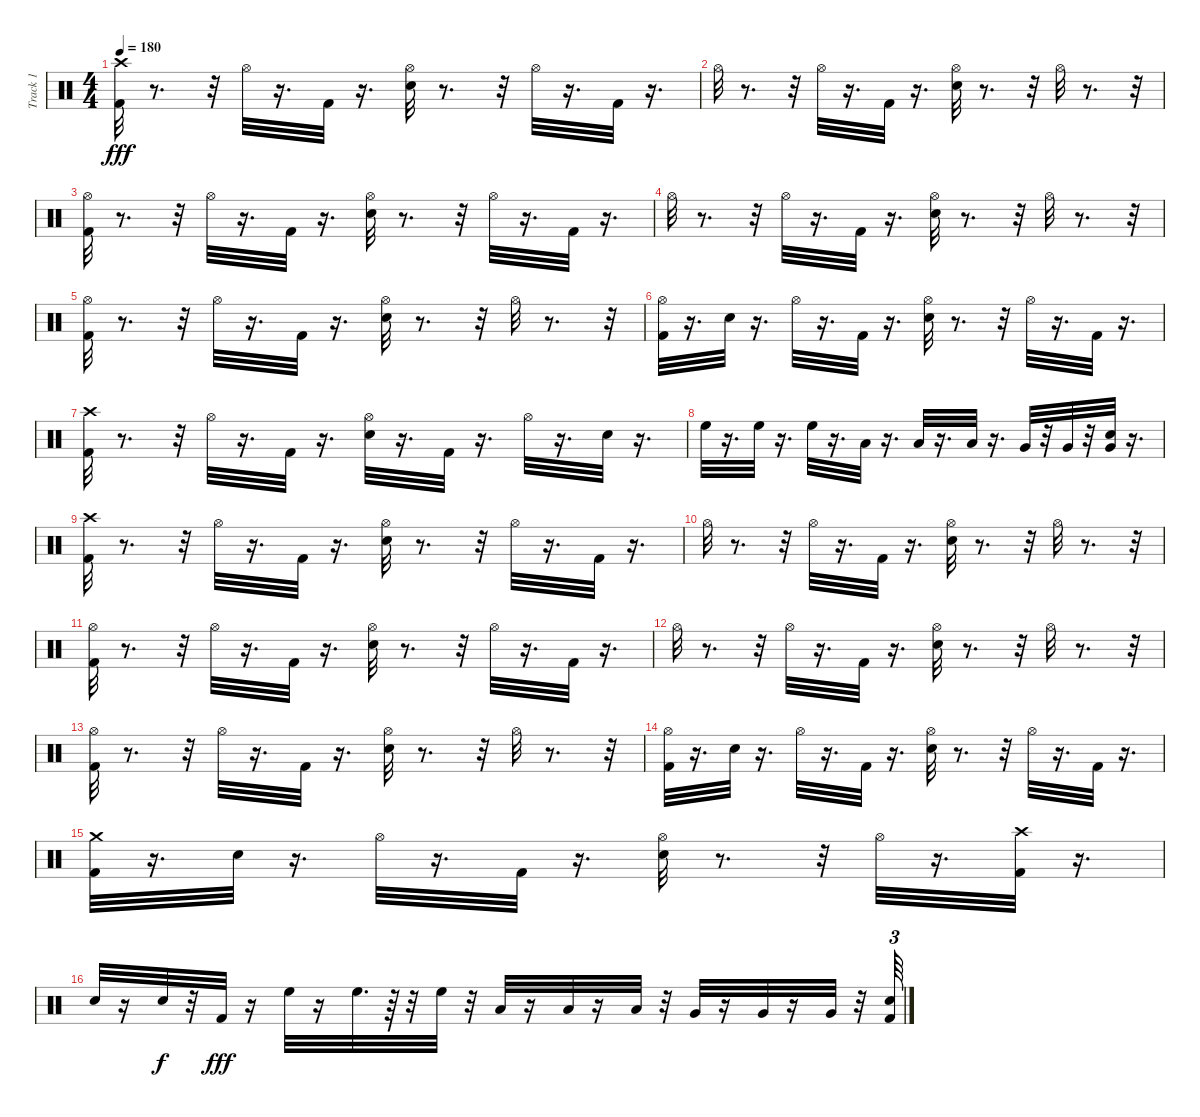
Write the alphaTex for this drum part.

\track ("Track 1" "Track 1") {mute instrument percussion}
\staff {score}
\articulation defaults
\ts (4 4)
\tempo 180
\clef neutral
\ks c
("Crash high (hit)" "Kick (hit) 2").32{dy fff} r.8{d} r.32 "Hi-Hat (open)".32 r.16{d} "Kick (hit) 2".32 r.16{d} ("Hi-Hat (open)" "Snare (hit) 2").32 r.8{d} r.32 "Hi-Hat (open)".32 r.16{d} "Kick (hit) 2".32 r.16{d} |
"Hi-Hat (open)".32 r.8{d} r.32 "Hi-Hat (open)".32 r.16{d} "Kick (hit) 2".32 r.16{d} ("Hi-Hat (open)" "Snare (hit) 2").32 r.8{d} r.32 "Hi-Hat (open)".32 r.8{d} r.32 |
("Hi-Hat (open)" "Kick (hit) 2").32 r.8{d} r.32 "Hi-Hat (open)".32 r.16{d} "Kick (hit) 2".32 r.16{d} ("Hi-Hat (open)" "Snare (hit) 2").32 r.8{d} r.32 "Hi-Hat (open)".32 r.16{d} "Kick (hit) 2".32 r.16{d} |
"Hi-Hat (open)".32 r.8{d} r.32 "Hi-Hat (open)".32 r.16{d} "Kick (hit) 2".32 r.16{d} ("Hi-Hat (open)" "Snare (hit) 2").32 r.8{d} r.32 "Hi-Hat (open)".32 r.8{d} r.32 |
("Hi-Hat (open)" "Kick (hit) 2").32 r.8{d} r.32 "Hi-Hat (open)".32 r.16{d} "Kick (hit) 2".32 r.16{d} ("Hi-Hat (open)" "Snare (hit) 2").32 r.8{d} r.32 "Hi-Hat (open)".32 r.8{d} r.32 |
("Hi-Hat (open)" "Kick (hit) 2").32 r.16{d} "Snare (hit) 2".32 r.16{d} "Hi-Hat (open)".32 r.16{d} "Kick (hit) 2".32 r.16{d} ("Snare (hit) 2" "Hi-Hat (open)").32 r.8{d} r.32 "Hi-Hat (open)".32 r.16{d} "Kick (hit) 2".32 r.16{d} |
("Crash high (hit)" "Kick (hit) 2").32 r.8{d} r.32 "Hi-Hat (open)".32 r.16{d} "Kick (hit) 2".32 r.16{d} ("Hi-Hat (open)" "Snare (hit) 2").32 r.16{d} "Kick (hit) 2".32 r.16{d} "Hi-Hat (open)".32 r.16{d} "Electric Snare (hit)".32 r.16{d} |
"High Floor Tom (hit)".32 r.16{d} "High Floor Tom (hit)".32 r.16{d} "High Floor Tom (hit)".32 r.16{d} "Low Tom (hit)".32 r.16{d} "Low Tom (hit)".32 r.16{d} "Low Tom (hit)".32 r.16{d} "Very Low Tom (hit)".32 r.32 "Very Low Tom (hit)".32 r.32 ("Snare (hit) 2" "Very Low Tom (hit)").32 r.16{d} |
("Crash high (hit)" "Kick (hit) 2").32 r.8{d} r.32 "Hi-Hat (open)".32 r.16{d} "Kick (hit) 2".32 r.16{d} ("Hi-Hat (open)" "Snare (hit) 2").32 r.8{d} r.32 "Hi-Hat (open)".32 r.16{d} "Kick (hit) 2".32 r.16{d} |
"Hi-Hat (open)".32 r.8{d} r.32 "Hi-Hat (open)".32 r.16{d} "Kick (hit) 2".32 r.16{d} ("Hi-Hat (open)" "Snare (hit) 2").32 r.8{d} r.32 "Hi-Hat (open)".32 r.8{d} r.32 |
("Kick (hit) 2" "Hi-Hat (open)").32 r.8{d} r.32 "Hi-Hat (open)".32 r.16{d} "Kick (hit) 2".32 r.16{d} ("Hi-Hat (open)" "Snare (hit) 2").32 r.8{d} r.32 "Hi-Hat (open)".32 r.16{d} "Kick (hit) 2".32 r.16{d} |
"Hi-Hat (open)".32 r.8{d} r.32 "Hi-Hat (open)".32 r.16{d} "Kick (hit) 2".32 r.16{d} ("Hi-Hat (open)" "Snare (hit) 2").32 r.8{d} r.32 "Hi-Hat (open)".32 r.8{d} r.32 |
("Kick (hit) 2" "Hi-Hat (open)").32 r.8{d} r.32 "Hi-Hat (open)".32 r.16{d} "Kick (hit) 2".32 r.16{d} ("Hi-Hat (open)" "Snare (hit) 2").32 r.8{d} r.32 "Hi-Hat (open)".32 r.8{d} r.32 |
("Kick (hit) 2" "Hi-Hat (open)").32 r.16{d} "Snare (hit) 2".32 r.16{d} "Hi-Hat (open)".32 r.16{d} "Kick (hit) 2".32 r.16{d} ("Snare (hit) 2" "Hi-Hat (open)").32 r.8{d} r.32 "Hi-Hat (open)".32 r.16{d} "Kick (hit) 2".32 r.16{d} |
("Kick (hit) 2" "Crash medium (hit)").32 r.16{d} "Snare (hit) 2".32 r.16{d} "Hi-Hat (open)".32 r.16{d} "Kick (hit) 2".32 r.16{d} ("Hi-Hat (open)" "Electric Snare (hit)").32 r.8{d} r.32 "Hi-Hat (open)".32 r.16{d} ("Kick (hit) 2" "Crash high (hit)").32 r.16{d} |
"Electric Snare (hit)".32 r.16 "Snare (hit) 2".32{dy f} r.32 "Kick (hit) 2".32{dy fff} r.16 "High Floor Tom (hit)".32 r.16 "High Floor Tom (hit)".32{d} r.64 r.32 "High Floor Tom (hit)".32 r.32 "Low Tom (hit)".32 r.16 "Low Tom (hit)".32 r.16 "Low Tom (hit)".32 r.32 "Very Low Tom (hit)".32 r.16 "Very Low Tom (hit)".32 r.16 "Very Low Tom (hit)".32 r.32 ("Kick (hit) 2" "Snare (hit)").64{tu (3 2)}
